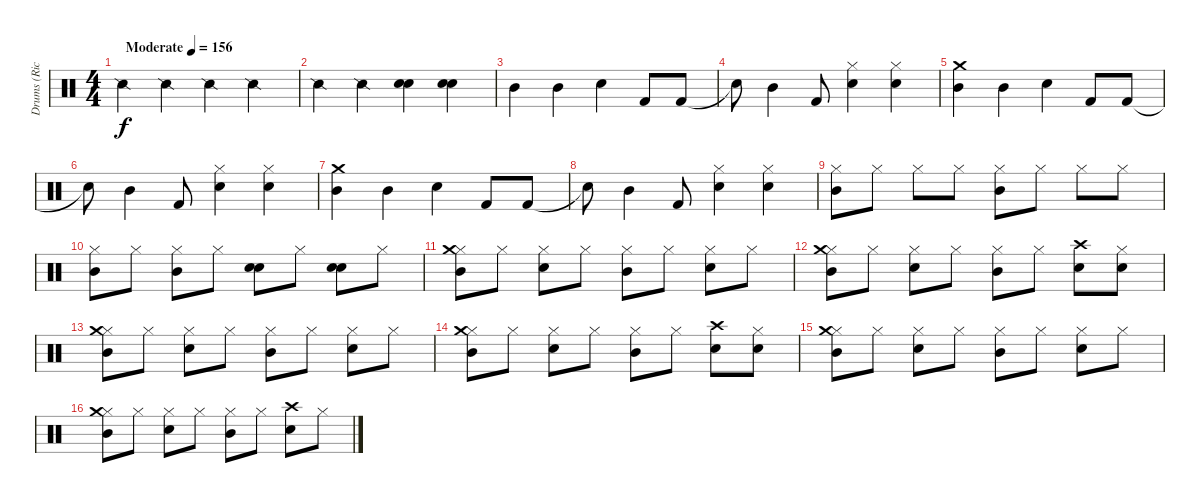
\track ("Drums (Ricky)" "Drums (Ric") {instrument percussion}
\staff {score}
\articulation defaults
\ts (4 4)
\tempo (156 "Moderate")
\clef neutral
\ks c "Snare (side stick) 2".4{dy f} "Snare (side stick) 2".4 "Snare (side stick) 2".4 "Snare (side stick) 2".4
|
"Snare (side stick) 2".4 "Snare (side stick) 2".4 ("Electric Snare (hit)" "Electric Snare (hit)").4 ("Electric Snare (hit)" "Electric Snare (hit)").4 |
"Mid Tom (hit)".4 "Mid Tom (hit)".4 "Electric Snare (hit)".4 "Kick (hit) 2".8 "Kick (hit) 2".8 |
"Snare (hit)"{t}.8 "Mid Tom (hit)".4 "Kick (hit) 2".8 ("Electric Snare (hit)" "Hi-Hat (closed)").4 ("Electric Snare (hit)" "Hi-Hat (closed)").4 |
("Mid Tom (hit)" "Crash medium (hit)").4 "Mid Tom (hit)".4 "Electric Snare (hit)".4 "Kick (hit) 2".8 "Kick (hit) 2".8 |
"Snare (hit)"{t}.8 "Mid Tom (hit)".4 "Kick (hit) 2".8 ("Electric Snare (hit)" "Hi-Hat (closed)").4 ("Electric Snare (hit)" "Hi-Hat (closed)").4 |
("Mid Tom (hit)" "Crash medium (hit)").4 "Mid Tom (hit)".4 "Electric Snare (hit)".4 "Kick (hit) 2".8 "Kick (hit) 2".8 |
"Snare (hit)"{t}.8 "Mid Tom (hit)".4 "Kick (hit) 2".8 ("Electric Snare (hit)" "Hi-Hat (closed)").4 ("Electric Snare (hit)" "Hi-Hat (closed)").4 |
("Mid Tom (hit)" "Hi-Hat (closed)").8 "Hi-Hat (closed)".8 "Hi-Hat (closed)".8 "Hi-Hat (closed)".8 ("Mid Tom (hit)" "Hi-Hat (closed)").8 "Hi-Hat (closed)".8 "Hi-Hat (closed)".8 "Hi-Hat (closed)".8 |
("Mid Tom (hit)" "Hi-Hat (closed)").8 "Hi-Hat (closed)".8 ("Mid Tom (hit)" "Hi-Hat (closed)").8 "Hi-Hat (closed)".8 ("Electric Snare (hit)" "Electric Snare (hit)").8 "Hi-Hat (closed)".8 ("Electric Snare (hit)" "Electric Snare (hit)").8 "Hi-Hat (closed)".8 |
("Mid Tom (hit)" "Hi-Hat (closed)" "Crash medium (hit)").8 "Hi-Hat (closed)".8 ("Hi-Hat (closed)" "Electric Snare (hit)").8 "Hi-Hat (closed)".8 ("Mid Tom (hit)" "Hi-Hat (closed)").8 "Hi-Hat (closed)".8 ("Hi-Hat (closed)" "Electric Snare (hit)").8 "Hi-Hat (closed)".8 |
("Mid Tom (hit)" "Hi-Hat (closed)" "Crash medium (hit)").8 "Hi-Hat (closed)".8 ("Hi-Hat (closed)" "Electric Snare (hit)").8 "Hi-Hat (closed)".8 ("Mid Tom (hit)" "Hi-Hat (closed)").8 "Hi-Hat (closed)".8 ("Crash high (hit)" "Electric Snare (hit)").8 ("Hi-Hat (closed)" "Electric Snare (hit)").8 |
("Mid Tom (hit)" "Hi-Hat (closed)" "Crash medium (hit)").8 "Hi-Hat (closed)".8 ("Hi-Hat (closed)" "Electric Snare (hit)").8 "Hi-Hat (closed)".8 ("Mid Tom (hit)" "Hi-Hat (closed)").8 "Hi-Hat (closed)".8 ("Hi-Hat (closed)" "Electric Snare (hit)").8 "Hi-Hat (closed)".8 |
("Mid Tom (hit)" "Hi-Hat (closed)" "Crash medium (hit)").8 "Hi-Hat (closed)".8 ("Hi-Hat (closed)" "Electric Snare (hit)").8 "Hi-Hat (closed)".8 ("Mid Tom (hit)" "Hi-Hat (closed)").8 "Hi-Hat (closed)".8 ("Crash high (hit)" "Electric Snare (hit)").8 ("Hi-Hat (closed)" "Electric Snare (hit)").8 |
("Mid Tom (hit)" "Hi-Hat (closed)" "Crash medium (hit)").8 "Hi-Hat (closed)".8 ("Hi-Hat (closed)" "Electric Snare (hit)").8 "Hi-Hat (closed)".8 ("Mid Tom (hit)" "Hi-Hat (closed)").8 "Hi-Hat (closed)".8 ("Hi-Hat (closed)" "Electric Snare (hit)").8 "Hi-Hat (closed)".8 |
("Mid Tom (hit)" "Hi-Hat (closed)" "Crash medium (hit)").8 "Hi-Hat (closed)".8 ("Hi-Hat (closed)" "Electric Snare (hit)").8 "Hi-Hat (closed)".8 ("Mid Tom (hit)" "Hi-Hat (closed)").8 "Hi-Hat (closed)".8 ("Crash high (hit)" "Electric Snare (hit)").8 "Hi-Hat (closed)".8
